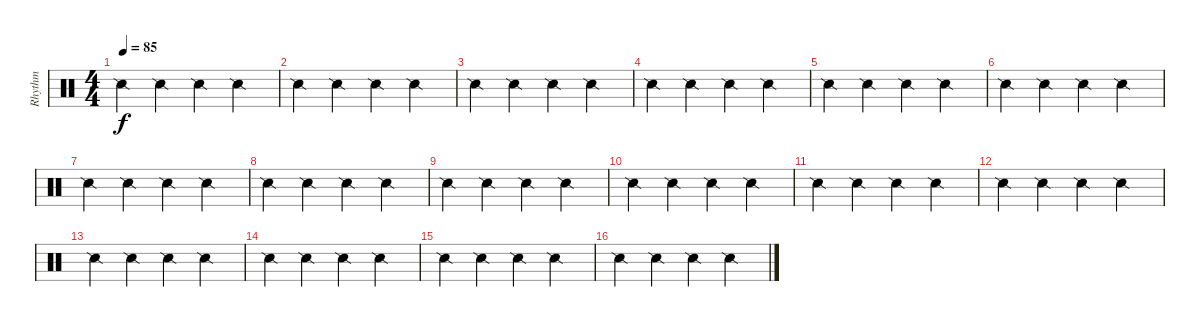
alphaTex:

\track ("Rhythm" "Rhythm") {instrument percussion}
\staff {score}
\articulation defaults
\ts (4 4)
\tempo 85
\clef neutral
\ks c "Snare (side stick) 2".4{dy f} "Snare (side stick) 2".4 "Snare (side stick) 2".4 "Snare (side stick) 2".4
|
"Snare (side stick) 2".4 "Snare (side stick) 2".4 "Snare (side stick) 2".4 "Snare (side stick) 2".4 |
"Snare (side stick) 2".4 "Snare (side stick) 2".4 "Snare (side stick) 2".4 "Snare (side stick) 2".4 |
"Snare (side stick) 2".4 "Snare (side stick) 2".4 "Snare (side stick) 2".4 "Snare (side stick) 2".4 |
"Snare (side stick) 2".4 "Snare (side stick) 2".4 "Snare (side stick) 2".4 "Snare (side stick) 2".4 |
"Snare (side stick) 2".4 "Snare (side stick) 2".4 "Snare (side stick) 2".4 "Snare (side stick) 2".4 |
"Snare (side stick) 2".4 "Snare (side stick) 2".4 "Snare (side stick) 2".4 "Snare (side stick) 2".4 |
"Snare (side stick) 2".4 "Snare (side stick) 2".4 "Snare (side stick) 2".4 "Snare (side stick) 2".4 |
"Snare (side stick) 2".4 "Snare (side stick) 2".4 "Snare (side stick) 2".4 "Snare (side stick) 2".4 |
"Snare (side stick) 2".4 "Snare (side stick) 2".4 "Snare (side stick) 2".4 "Snare (side stick) 2".4 |
"Snare (side stick) 2".4 "Snare (side stick) 2".4 "Snare (side stick) 2".4 "Snare (side stick) 2".4 |
"Snare (side stick) 2".4 "Snare (side stick) 2".4 "Snare (side stick) 2".4 "Snare (side stick) 2".4 |
"Snare (side stick) 2".4 "Snare (side stick) 2".4 "Snare (side stick) 2".4 "Snare (side stick) 2".4 |
"Snare (side stick) 2".4 "Snare (side stick) 2".4 "Snare (side stick) 2".4 "Snare (side stick) 2".4 |
"Snare (side stick) 2".4 "Snare (side stick) 2".4 "Snare (side stick) 2".4 "Snare (side stick) 2".4 |
"Snare (side stick) 2".4 "Snare (side stick) 2".4 "Snare (side stick) 2".4 "Snare (side stick) 2".4
